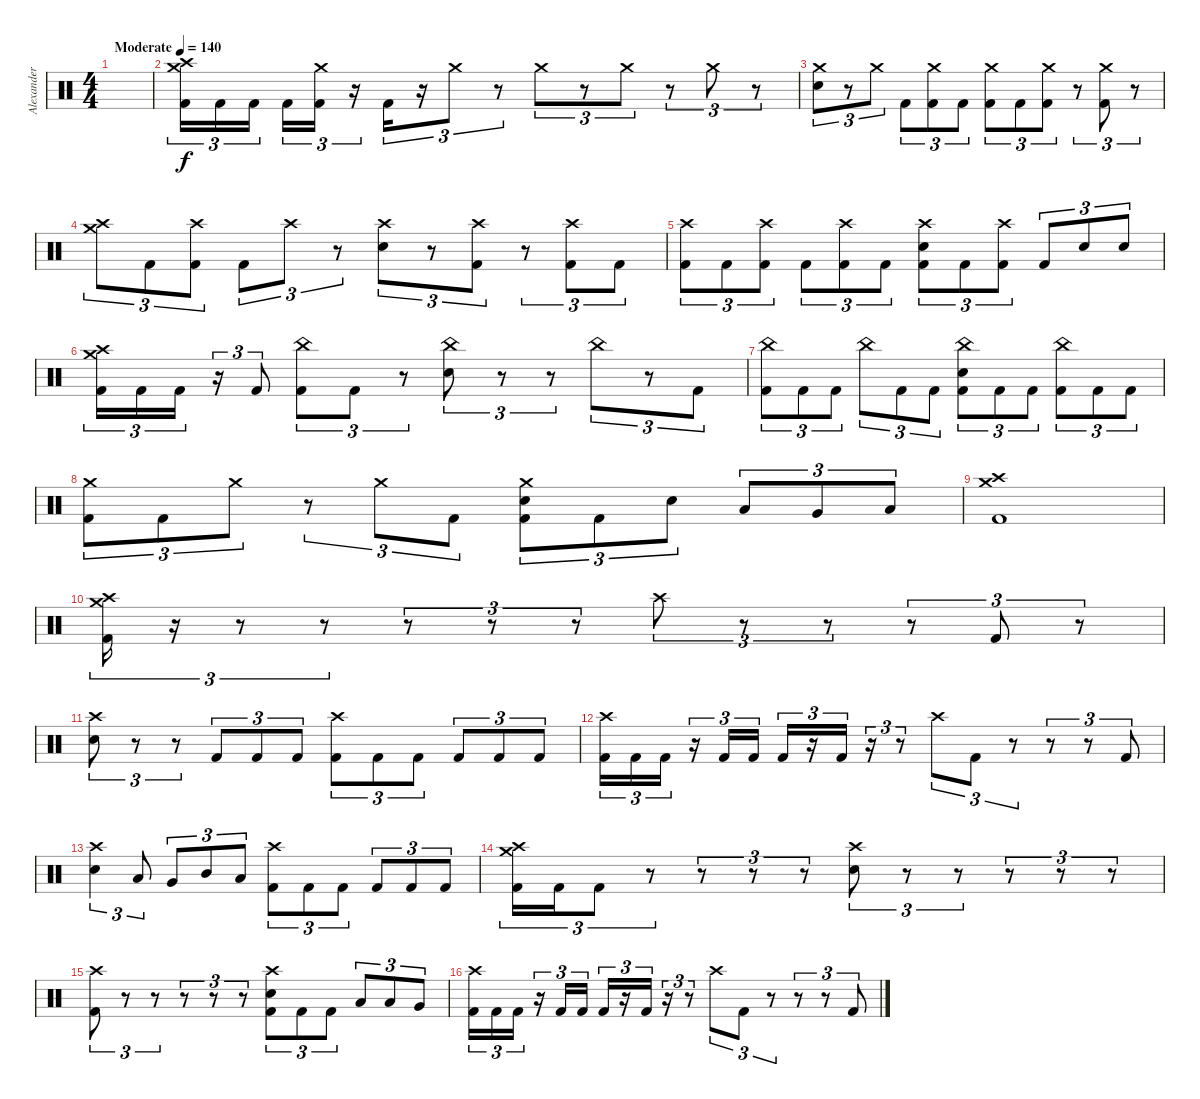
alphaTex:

\track ("Alexander Yazikov" "Alexander ") {instrument percussion}
\staff {score}
\articulation defaults
\ts (4 4)
\tempo (140 "Moderate")
\clef neutral
\ks c
|
("Crash medium (hit)" "Crash high (hit)" "Kick (hit) 2").16{tu (3 2)} "Kick (hit) 2".16{tu (3 2)} "Kick (hit) 2".16{tu (3 2) beam splitsecondary} "Kick (hit) 2".16{tu (3 2)} ("Crash medium (hit)" "Kick (hit) 2").16{tu (3 2)} r.16{tu (3 2)} "Kick (hit) 2".16{tu (3 2)} r.16{tu (3 2)} "Crash medium (hit)".8{tu (3 2)} r.8{tu (3 2)} "Crash medium (hit)".8{tu (3 2)} r.8{tu (3 2)} "Crash medium (hit)".8{tu (3 2)} r.8{tu (3 2)} "Crash medium (hit)".8{tu (3 2)} r.8{tu (3 2)} |
("Crash medium (hit)" "Electric Snare (hit)").8{tu (3 2)} r.8{tu (3 2)} "Crash medium (hit)".8{tu (3 2)} "Kick (hit) 2".8{tu (3 2)} ("Crash medium (hit)" "Kick (hit) 2").8{tu (3 2)} "Kick (hit) 2".8{tu (3 2)} ("Crash medium (hit)" "Kick (hit) 2").8{tu (3 2)} "Kick (hit) 2".8{tu (3 2)} ("Crash medium (hit)" "Kick (hit) 2").8{tu (3 2)} r.8{tu (3 2)} ("Crash medium (hit)" "Kick (hit) 2").8{tu (3 2)} r.8{tu (3 2)} |
("Crash medium (hit)" "Crash high (hit)").8{tu (3 2)} "Kick (hit) 2".8{tu (3 2)} ("Crash high (hit)" "Kick (hit) 2").8{tu (3 2)} "Kick (hit) 2".8{tu (3 2)} "Crash high (hit)".8{tu (3 2)} r.8{tu (3 2)} ("Crash high (hit)" "Electric Snare (hit)").8{tu (3 2)} r.8{tu (3 2)} ("Crash high (hit)" "Kick (hit) 2").8{tu (3 2)} r.8{tu (3 2)} ("Crash high (hit)" "Kick (hit) 2").8{tu (3 2)} "Kick (hit) 2".8{tu (3 2)} |
("Crash high (hit)" "Kick (hit) 2").8{tu (3 2)} "Kick (hit) 2".8{tu (3 2)} ("Crash high (hit)" "Kick (hit) 2").8{tu (3 2)} "Kick (hit) 2".8{tu (3 2)} ("Crash high (hit)" "Kick (hit) 2").8{tu (3 2)} "Kick (hit) 2".8{tu (3 2)} ("Crash high (hit)" "Electric Snare (hit)" "Kick (hit) 2").8{tu (3 2)} "Kick (hit) 2".8{tu (3 2)} ("Crash high (hit)" "Kick (hit) 2").8{tu (3 2)} "Kick (hit) 2".8{tu (3 2)} "Electric Snare (hit)".8{tu (3 2)} "Electric Snare (hit)".8{tu (3 2)} |
("Crash medium (hit)" "Crash high (hit)" "Kick (hit) 2").16{tu (3 2)} "Kick (hit) 2".16{tu (3 2)} "Kick (hit) 2".16{tu (3 2)} r.16{tu (3 2)} "Kick (hit) 2".8{tu (3 2)} ("China (hit)" "Kick (hit) 2").8{tu (3 2)} "Kick (hit) 2".8{tu (3 2)} r.8{tu (3 2)} ("China (hit)" "Electric Snare (hit)").8{tu (3 2)} r.8{tu (3 2)} r.8{tu (3 2)} "China (hit)".8{tu (3 2)} r.8{tu (3 2)} "Kick (hit) 2".8{tu (3 2)} |
("China (hit)" "Kick (hit) 2").8{tu (3 2)} "Kick (hit) 2".8{tu (3 2)} "Kick (hit) 2".8{tu (3 2)} "China (hit)".8{tu (3 2)} "Kick (hit) 2".8{tu (3 2)} "Kick (hit) 2".8{tu (3 2)} ("China (hit)" "Electric Snare (hit)" "Kick (hit) 2").8{tu (3 2)} "Kick (hit) 2".8{tu (3 2)} "Kick (hit) 2".8{tu (3 2)} ("China (hit)" "Kick (hit) 2").8{tu (3 2)} "Kick (hit) 2".8{tu (3 2)} "Kick (hit) 2".8{tu (3 2)} |
("Crash medium (hit)" "Kick (hit) 2").8{tu (3 2)} "Kick (hit) 2".8{tu (3 2)} "Crash medium (hit)".8{tu (3 2)} r.8{tu (3 2)} "Crash medium (hit)".8{tu (3 2)} "Kick (hit) 2".8{tu (3 2)} ("Crash medium (hit)" "Electric Snare (hit)" "Kick (hit) 2").8{tu (3 2)} "Kick (hit) 2".8{tu (3 2)} "Electric Snare (hit)".8{tu (3 2)} "Low Tom (hit)".8{tu (3 2)} "Very Low Tom (hit)".8{tu (3 2)} "Low Floor Tom (hit)".8{tu (3 2)} |
("Crash medium (hit)" "Crash high (hit)" "Kick (hit) 2").1 |
("Crash medium (hit)" "Crash high (hit)" "Kick (hit) 2").16{tu (3 2)} r.16{tu (3 2)} r.8{tu (3 2)} r.8{tu (3 2)} r.8{tu (3 2)} r.8{tu (3 2)} r.8{tu (3 2)} "Crash high (hit)".8{tu (3 2)} r.8{tu (3 2)} r.8{tu (3 2)} r.8{tu (3 2)} "Kick (hit) 2".8{tu (3 2)} r.8{tu (3 2)} |
("Crash high (hit)" "Electric Snare (hit)").8{tu (3 2)} r.8{tu (3 2)} r.8{tu (3 2)} "Kick (hit) 2".8{tu (3 2)} "Kick (hit) 2".8{tu (3 2)} "Kick (hit) 2".8{tu (3 2)} ("Crash high (hit)" "Kick (hit) 2").8{tu (3 2)} "Kick (hit) 2".8{tu (3 2)} "Kick (hit) 2".8{tu (3 2)} "Kick (hit) 2".8{tu (3 2)} "Kick (hit) 2".8{tu (3 2)} "Kick (hit) 2".8{tu (3 2)} |
("Crash high (hit)" "Kick (hit) 2").16{tu (3 2)} "Kick (hit) 2".16{tu (3 2)} "Kick (hit) 2".16{tu (3 2)} r.16{tu (3 2)} "Kick (hit) 2".16{tu (3 2)} "Kick (hit) 2".16{tu (3 2)} "Kick (hit) 2".16{tu (3 2)} r.16{tu (3 2)} "Kick (hit) 2".16{tu (3 2)} r.16{tu (3 2)} r.8{tu (3 2)} "Crash high (hit)".8{tu (3 2)} "Kick (hit) 2".8{tu (3 2)} r.8{tu (3 2)} r.8{tu (3 2)} r.8{tu (3 2)} "Kick (hit) 2".8{tu (3 2)} |
("Crash high (hit)" "Electric Snare (hit)").4{tu (3 2)} "Low Tom (hit)".8{tu (3 2)} "Very Low Tom (hit)".8{tu (3 2)} "Mid Tom (hit)".8{tu (3 2)} "Low Tom (hit)".8{tu (3 2)} ("Crash high (hit)" "Kick (hit) 2").8{tu (3 2)} "Kick (hit) 2".8{tu (3 2)} "Kick (hit) 2".8{tu (3 2)} "Kick (hit) 2".8{tu (3 2)} "Kick (hit) 2".8{tu (3 2)} "Kick (hit) 2".8{tu (3 2)} |
("Crash medium (hit)" "Crash high (hit)" "Kick (hit) 2").16{tu (3 2)} "Kick (hit) 2".16{tu (3 2)} "Kick (hit) 2".8{tu (3 2)} r.8{tu (3 2)} r.8{tu (3 2)} r.8{tu (3 2)} r.8{tu (3 2)} ("Crash high (hit)" "Electric Snare (hit)").8{tu (3 2)} r.8{tu (3 2)} r.8{tu (3 2)} r.8{tu (3 2)} r.8{tu (3 2)} r.8{tu (3 2)} |
("Crash high (hit)" "Kick (hit) 2").8{tu (3 2)} r.8{tu (3 2)} r.8{tu (3 2)} r.8{tu (3 2)} r.8{tu (3 2)} r.8{tu (3 2)} ("Crash high (hit)" "Electric Snare (hit)" "Kick (hit) 2").8{tu (3 2)} "Kick (hit) 2".8{tu (3 2)} "Kick (hit) 2".8{tu (3 2)} "Low Tom (hit)".8{tu (3 2)} "Low Tom (hit)".8{tu (3 2)} "Very Low Tom (hit)".8{tu (3 2)} |
("Crash high (hit)" "Kick (hit) 2").16{tu (3 2)} "Kick (hit) 2".16{tu (3 2)} "Kick (hit) 2".16{tu (3 2)} r.16{tu (3 2)} "Kick (hit) 2".16{tu (3 2)} "Kick (hit) 2".16{tu (3 2)} "Kick (hit) 2".16{tu (3 2)} r.16{tu (3 2)} "Kick (hit) 2".16{tu (3 2)} r.16{tu (3 2)} r.8{tu (3 2)} "Crash high (hit)".8{tu (3 2)} "Kick (hit) 2".8{tu (3 2)} r.8{tu (3 2)} r.8{tu (3 2)} r.8{tu (3 2)} "Kick (hit) 2".8{tu (3 2)}
